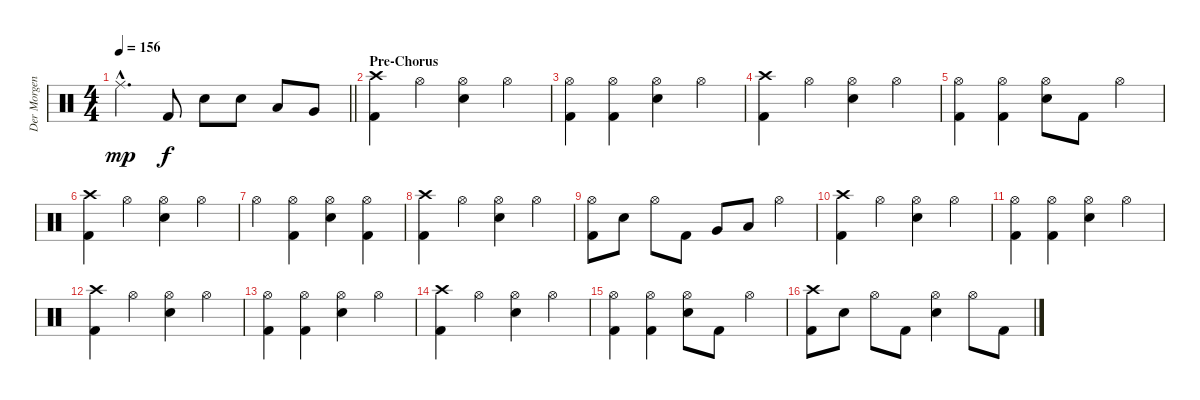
\track ("Der Morgenstern" "Der Morgen") {instrument percussion}
\staff {score}
\articulation defaults
\ts (4 4)
\tempo 156
\clef neutral
\barLineRight lightlight
\ks c "Ride (middle)"{hac}.4{d dy mp} "Kick (hit) 2".8{dy f} "Electric Snare (hit)".8 "Electric Snare (hit)".8 "Low Tom (hit)".8 "Very Low Tom (hit)".8
|
\section ("" "Pre-Chorus")
("Crash high (hit)" "Kick (hit) 2").4 "Hi-Hat (open)".4 ("Hi-Hat (open)" "Electric Snare (hit)").4 "Hi-Hat (open)".4 |
("Hi-Hat (open)" "Kick (hit) 2").4 ("Hi-Hat (open)" "Kick (hit) 2").4 ("Hi-Hat (open)" "Electric Snare (hit)").4 "Hi-Hat (open)".4 |
("Crash high (hit)" "Kick (hit) 2").4 "Hi-Hat (open)".4 ("Hi-Hat (open)" "Electric Snare (hit)").4 "Hi-Hat (open)".4 |
("Hi-Hat (open)" "Kick (hit) 2").4 ("Hi-Hat (open)" "Kick (hit) 2").4 ("Hi-Hat (open)" "Electric Snare (hit)").8 "Kick (hit) 2".8 "Hi-Hat (open)".4 |
("Crash high (hit)" "Kick (hit) 2").4 "Hi-Hat (open)".4 ("Hi-Hat (open)" "Electric Snare (hit)").4 "Hi-Hat (open)".4 |
"Hi-Hat (open)".4 ("Hi-Hat (open)" "Kick (hit) 2").4 ("Hi-Hat (open)" "Electric Snare (hit)").4 ("Hi-Hat (open)" "Kick (hit) 2").4 |
("Crash high (hit)" "Kick (hit) 2").4 "Hi-Hat (open)".4 ("Hi-Hat (open)" "Electric Snare (hit)").4 "Hi-Hat (open)".4 |
("Hi-Hat (open)" "Kick (hit) 2").8 "Electric Snare (hit)".8 "Hi-Hat (open)".8 "Kick (hit) 2".8 "Very Low Tom (hit)".8 "Low Floor Tom (hit)".8 "Hi-Hat (open)".4 |
("Crash high (hit)" "Kick (hit) 2").4 "Hi-Hat (open)".4 ("Hi-Hat (open)" "Electric Snare (hit)").4 "Hi-Hat (open)".4 |
("Hi-Hat (open)" "Kick (hit) 2").4 ("Hi-Hat (open)" "Kick (hit) 2").4 ("Hi-Hat (open)" "Electric Snare (hit)").4 "Hi-Hat (open)".4 |
("Crash high (hit)" "Kick (hit) 2").4 "Hi-Hat (open)".4 ("Hi-Hat (open)" "Electric Snare (hit)").4 "Hi-Hat (open)".4 |
("Hi-Hat (open)" "Kick (hit) 2").4 ("Hi-Hat (open)" "Kick (hit) 2").4 ("Hi-Hat (open)" "Electric Snare (hit)").4 "Hi-Hat (open)".4 |
("Crash high (hit)" "Kick (hit) 2").4 "Hi-Hat (open)".4 ("Hi-Hat (open)" "Electric Snare (hit)").4 "Hi-Hat (open)".4 |
("Hi-Hat (open)" "Kick (hit) 2").4 ("Hi-Hat (open)" "Kick (hit) 2").4 ("Hi-Hat (open)" "Electric Snare (hit)").8 "Kick (hit) 2".8 "Hi-Hat (open)".4 |
("Crash high (hit)" "Kick (hit) 2").8 "Electric Snare (hit)".8 "Hi-Hat (open)".8 "Kick (hit) 2".8 ("Hi-Hat (open)" "Electric Snare (hit)").4 "Hi-Hat (open)".8 "Kick (hit) 2".8
